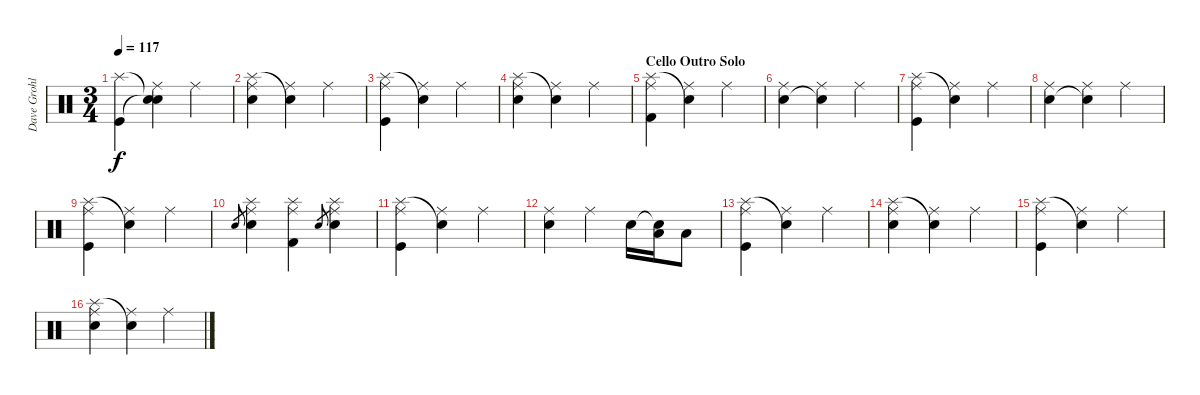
\track ("Dave Grohl-Drums" "Dave Grohl") {instrument percussion}
\staff {score}
\articulation defaults
\ts (3 4)
\tempo 117
\clef neutral
\ks c
("Splash (hit)" "Kick (hit)").4{dy f} ("Snare (hit)"{t} "Snare (hit)"{t} "Ride (middle)").4 "Ride (middle)".4 |
("Splash (hit)" "Electric Snare (hit)" "Ride (middle)").4 ("Snare (hit)"{t} "Ride (middle)").4 "Ride (middle)".4 |
("Splash (hit)" "Kick (hit)" "Ride (middle)").4 ("Snare (hit)"{t} "Ride (middle)").4 "Ride (middle)".4 |
("Splash (hit)" "Electric Snare (hit)" "Ride (middle)").4 ("Snare (hit)"{t} "Ride (middle)").4 "Ride (middle)".4 |
\section ("" "Cello Outro Solo")
("Splash (hit)" "Kick (hit) 2" "Ride (middle)").4 ("Snare (hit)"{t} "Ride (middle)").4 "Ride (middle)".4 |
("Electric Snare (hit)" "Ride (middle)").4 ("Snare (hit)"{t} "Ride (middle)").4 "Ride (middle)".4 |
("Splash (hit)" "Kick (hit)" "Ride (middle)").4 ("Snare (hit)"{t} "Ride (middle)").4 "Ride (middle)".4 |
("Electric Snare (hit)" "Ride (middle)").4 ("Snare (hit)"{t} "Ride (middle)").4 "Ride (middle)".4 |
("Splash (hit)" "Kick (hit)" "Ride (middle)").4 ("Snare (hit)"{t} "Ride (middle)").4 "Ride (middle)".4 |
"Electric Snare (hit)"{h}.8{gr} ("Splash (hit)" "Ride (middle)" "Electric Snare (hit)").4 ("Splash (hit)" "Ride (middle)" "Kick (hit) 2").4 "Electric Snare (hit)".8{gr} ("Splash (hit)" "Ride (middle)" "Electric Snare (hit)").4 |
("Splash (hit)" "Kick (hit)" "Ride (middle)").4 ("Snare (hit)"{t} "Ride (middle)").4 "Ride (middle)".4 |
("Electric Snare (hit)" "Ride (middle)").4 "Ride (middle)".4 "Electric Snare (hit)".16 ("Snare (hit)"{t} "Low Tom (hit)").16 "Low Floor Tom (hit)".8 |
("Splash (hit)" "Kick (hit)" "Ride (middle)").4 ("Snare (hit)"{t} "Ride (middle)").4 "Ride (middle)".4 |
("Splash (hit)" "Electric Snare (hit)" "Ride (middle)").4 ("Snare (hit)"{t} "Ride (middle)").4 "Ride (middle)".4 |
("Splash (hit)" "Kick (hit)" "Ride (middle)").4 ("Snare (hit)"{t} "Ride (middle)").4 "Ride (middle)".4 |
("Splash (hit)" "Electric Snare (hit)" "Ride (middle)").4 ("Snare (hit)"{t} "Ride (middle)").4 "Ride (middle)".4
